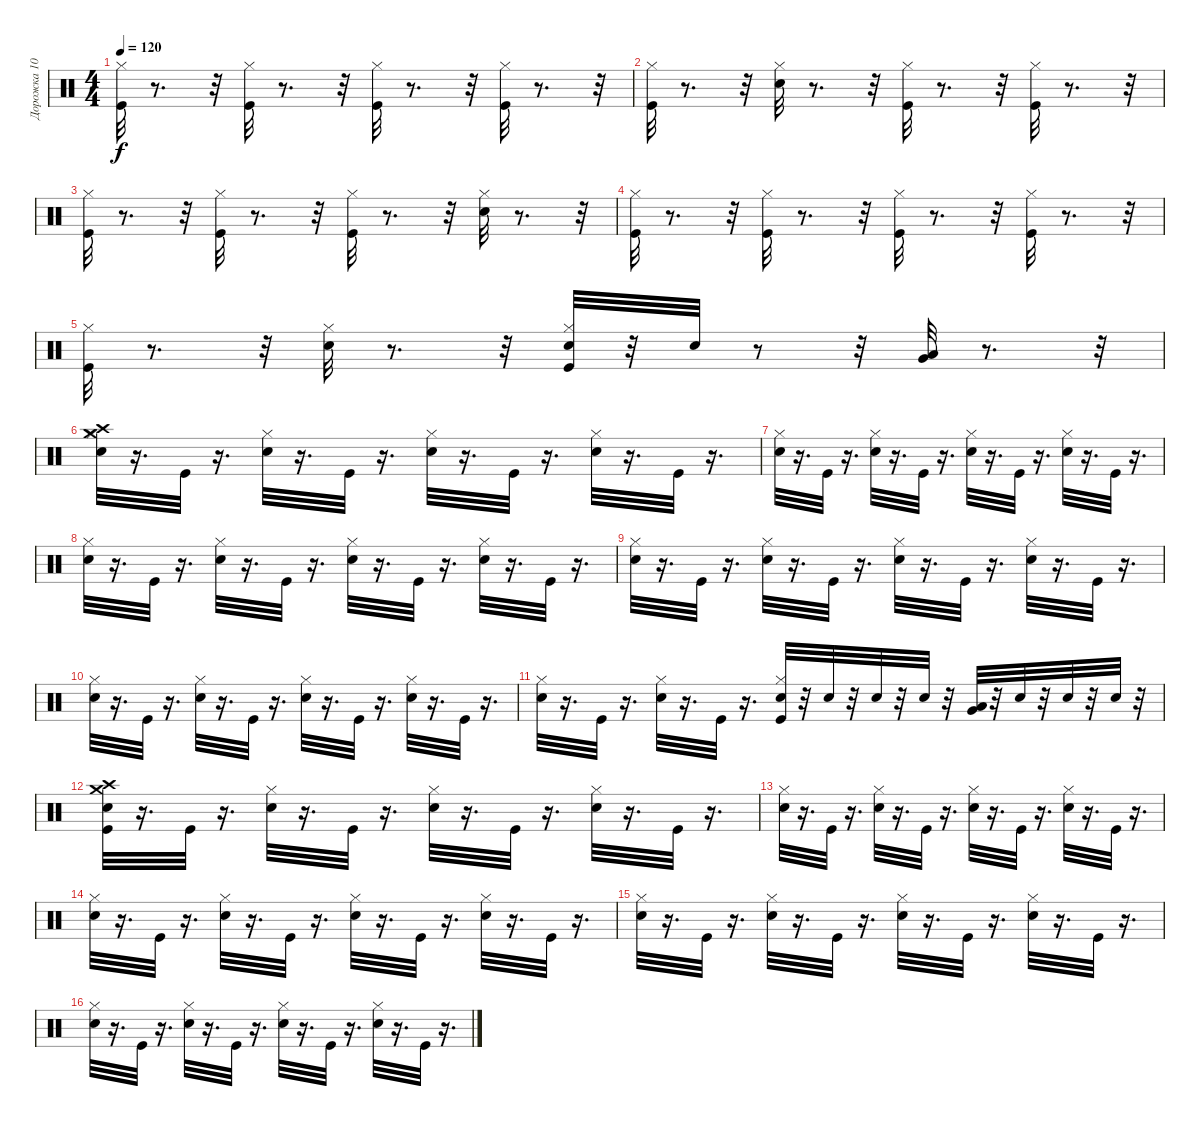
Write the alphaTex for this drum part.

\track ("Дорожка 10" "Дорожка 10") {instrument percussion}
\staff {score}
\articulation defaults
\ts (4 4)
\tempo 120
\clef neutral
\ks c
("Kick (hit)" "Hi-Hat (closed)").32{dy f} r.8{d} r.32 ("Kick (hit)" "Hi-Hat (closed)").32 r.8{d} r.32 ("Hi-Hat (closed)" "Kick (hit)").32 r.8{d} r.32 ("Kick (hit)" "Hi-Hat (closed)").32 r.8{d} r.32 |
("Kick (hit)" "Hi-Hat (closed)").32 r.8{d} r.32 ("Hi-Hat (closed)" "Snare (hit) 2").32 r.8{d} r.32 ("Kick (hit)" "Hi-Hat (closed)").32 r.8{d} r.32 ("Kick (hit)" "Hi-Hat (closed)").32 r.8{d} r.32 |
("Hi-Hat (closed)" "Kick (hit)").32 r.8{d} r.32 ("Kick (hit)" "Hi-Hat (closed)").32 r.8{d} r.32 ("Kick (hit)" "Hi-Hat (closed)").32 r.8{d} r.32 ("Hi-Hat (closed)" "Snare (hit) 2").32 r.8{d} r.32 |
("Kick (hit)" "Hi-Hat (closed)").32 r.8{d} r.32 ("Kick (hit)" "Hi-Hat (closed)").32 r.8{d} r.32 ("Hi-Hat (closed)" "Kick (hit)").32 r.8{d} r.32 ("Kick (hit)" "Hi-Hat (closed)").32 r.8{d} r.32 |
("Kick (hit)" "Hi-Hat (closed)").32 r.8{d} r.32 ("Snare (hit) 2" "Hi-Hat (closed)").32 r.8{d} r.32 ("Snare (hit) 2" "Kick (hit)" "Hi-Hat (closed)").32 r.32 "Snare (hit) 2".32 r.8 r.32 ("Very Low Tom (hit)" "Low Floor Tom (hit)").32 r.8{d} r.32 |
("Hi-Hat (closed)" "Crash medium (hit)" "Crash high (hit)" "Snare (hit) 2").32 r.16{d} "Kick (hit)".32 r.16{d} ("Hi-Hat (closed)" "Snare (hit) 2").32 r.16{d} "Kick (hit)".32 r.16{d} ("Hi-Hat (closed)" "Snare (hit) 2").32 r.16{d} "Kick (hit)".32 r.16{d} ("Snare (hit) 2" "Hi-Hat (closed)").32 r.16{d} "Kick (hit)".32 r.16{d} |
("Hi-Hat (closed)" "Snare (hit) 2").32 r.16{d} "Kick (hit)".32 r.16{d} ("Snare (hit) 2" "Hi-Hat (closed)").32 r.16{d} "Kick (hit)".32 r.16{d} ("Snare (hit) 2" "Hi-Hat (closed)").32 r.16{d} "Kick (hit)".32 r.16{d} ("Snare (hit) 2" "Hi-Hat (closed)").32 r.16{d} "Kick (hit)".32 r.16{d} |
("Hi-Hat (closed)" "Snare (hit) 2").32 r.16{d} "Kick (hit)".32 r.16{d} ("Hi-Hat (closed)" "Snare (hit) 2").32 r.16{d} "Kick (hit)".32 r.16{d} ("Snare (hit) 2" "Hi-Hat (closed)").32 r.16{d} "Kick (hit)".32 r.16{d} ("Snare (hit) 2" "Hi-Hat (closed)").32 r.16{d} "Kick (hit)".32 r.16{d} |
("Hi-Hat (closed)" "Snare (hit) 2").32 r.16{d} "Kick (hit)".32 r.16{d} ("Snare (hit) 2" "Hi-Hat (closed)").32 r.16{d} "Kick (hit)".32 r.16{d} ("Snare (hit) 2" "Hi-Hat (closed)").32 r.16{d} "Kick (hit)".32 r.16{d} ("Hi-Hat (closed)" "Snare (hit) 2").32 r.16{d} "Kick (hit)".32 r.16{d} |
("Hi-Hat (closed)" "Snare (hit) 2").32 r.16{d} "Kick (hit)".32 r.16{d} ("Snare (hit) 2" "Hi-Hat (closed)").32 r.16{d} "Kick (hit)".32 r.16{d} ("Snare (hit) 2" "Hi-Hat (closed)").32 r.16{d} "Kick (hit)".32 r.16{d} ("Hi-Hat (closed)" "Snare (hit) 2").32 r.16{d} "Kick (hit)".32 r.16{d} |
("Snare (hit) 2" "Hi-Hat (closed)").32 r.16{d} "Kick (hit)".32 r.16{d} ("Hi-Hat (closed)" "Snare (hit) 2").32 r.16{d} "Kick (hit)".32 r.16{d} ("Hi-Hat (closed)" "Snare (hit) 2" "Kick (hit)").32 r.32 "Snare (hit) 2".32 r.32 "Snare (hit) 2".32 r.32 "Snare (hit) 2".32 r.32 ("Low Floor Tom (hit)" "Very Low Tom (hit)").32 r.32 "Snare (hit) 2".32 r.32 "Snare (hit) 2".32 r.32 "Snare (hit) 2".32 r.32 |
("Snare (hit) 2" "Crash medium (hit)" "Crash high (hit)" "Kick (hit)").32 r.16{d} "Kick (hit)".32 r.16{d} ("Snare (hit) 2" "Hi-Hat (closed)").32 r.16{d} "Kick (hit)".32 r.16{d} ("Snare (hit) 2" "Hi-Hat (closed)").32 r.16{d} "Kick (hit)".32 r.16{d} ("Hi-Hat (closed)" "Snare (hit) 2").32 r.16{d} "Kick (hit)".32 r.16{d} |
("Snare (hit) 2" "Hi-Hat (closed)").32 r.16{d} "Kick (hit)".32 r.16{d} ("Hi-Hat (closed)" "Snare (hit) 2").32 r.16{d} "Kick (hit)".32 r.16{d} ("Snare (hit) 2" "Hi-Hat (closed)").32 r.16{d} "Kick (hit)".32 r.16{d} ("Hi-Hat (closed)" "Snare (hit) 2").32 r.16{d} "Kick (hit)".32 r.16{d} |
("Snare (hit) 2" "Hi-Hat (closed)").32 r.16{d} "Kick (hit)".32 r.16{d} ("Hi-Hat (closed)" "Snare (hit) 2").32 r.16{d} "Kick (hit)".32 r.16{d} ("Hi-Hat (closed)" "Snare (hit) 2").32 r.16{d} "Kick (hit)".32 r.16{d} ("Hi-Hat (closed)" "Snare (hit) 2").32 r.16{d} "Kick (hit)".32 r.16{d} |
("Hi-Hat (closed)" "Snare (hit) 2").32 r.16{d} "Kick (hit)".32 r.16{d} ("Hi-Hat (closed)" "Snare (hit) 2").32 r.16{d} "Kick (hit)".32 r.16{d} ("Snare (hit) 2" "Hi-Hat (closed)").32 r.16{d} "Kick (hit)".32 r.16{d} ("Hi-Hat (closed)" "Snare (hit) 2").32 r.16{d} "Kick (hit)".32 r.16{d} |
("Hi-Hat (closed)" "Snare (hit) 2").32 r.16{d} "Kick (hit)".32 r.16{d} ("Hi-Hat (closed)" "Snare (hit) 2").32 r.16{d} "Kick (hit)".32 r.16{d} ("Snare (hit) 2" "Hi-Hat (closed)").32 r.16{d} "Kick (hit)".32 r.16{d} ("Hi-Hat (closed)" "Snare (hit) 2").32 r.16{d} "Kick (hit)".32 r.16{d}
